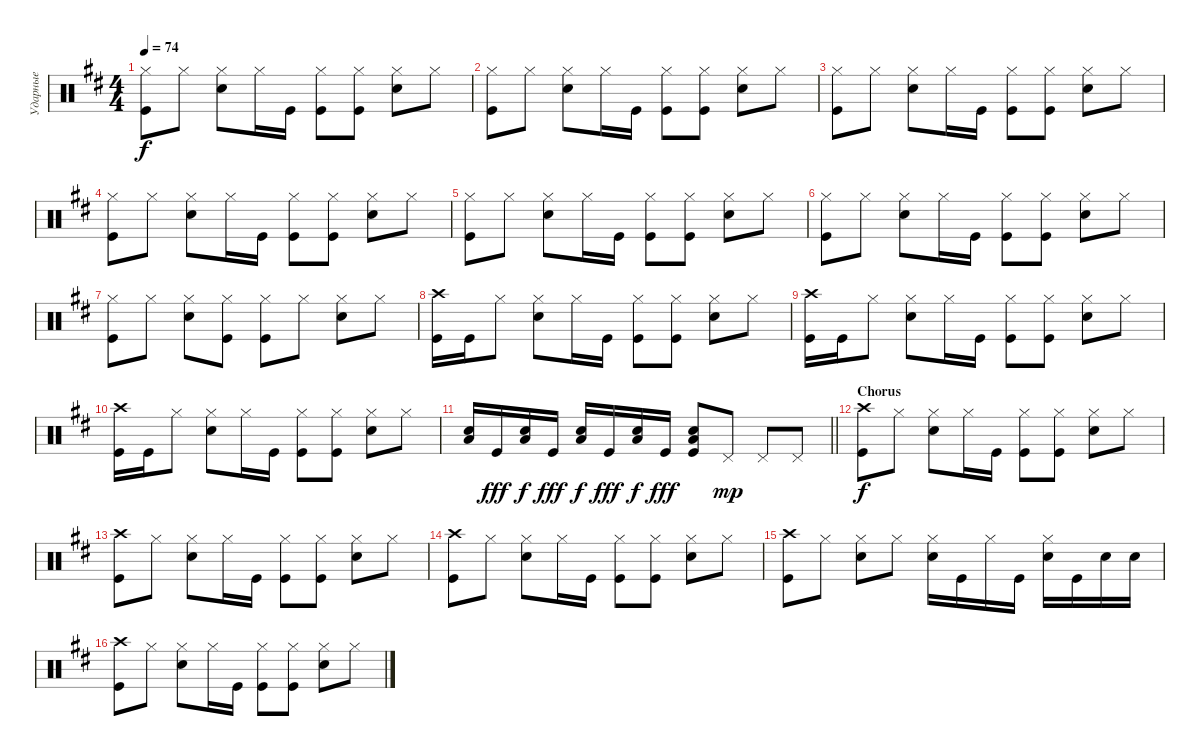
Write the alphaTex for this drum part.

\track ("Ударные" "Ударные") {instrument percussion}
\staff {score}
\articulation defaults
\ts (4 4)
\tempo 74
\clef neutral
\ks bminor
("Kick (hit)" "Hi-Hat (closed)").8{dy f} "Hi-Hat (closed)".8 ("Hi-Hat (closed)" "Snare (hit) 2").8 "Hi-Hat (closed)".16 "Kick (hit)".16 ("Kick (hit)" "Hi-Hat (closed)").8 ("Kick (hit)" "Hi-Hat (closed)").8 ("Snare (hit) 2" "Hi-Hat (closed)").8 "Hi-Hat (closed)".8 |
("Kick (hit)" "Hi-Hat (closed)").8 "Hi-Hat (closed)".8 ("Hi-Hat (closed)" "Snare (hit) 2").8 "Hi-Hat (closed)".16 "Kick (hit)".16 ("Kick (hit)" "Hi-Hat (closed)").8 ("Kick (hit)" "Hi-Hat (closed)").8 ("Snare (hit) 2" "Hi-Hat (closed)").8 "Hi-Hat (closed)".8 |
("Kick (hit)" "Hi-Hat (closed)").8 "Hi-Hat (closed)".8 ("Hi-Hat (closed)" "Snare (hit) 2").8 "Hi-Hat (closed)".16 "Kick (hit)".16 ("Kick (hit)" "Hi-Hat (closed)").8 ("Kick (hit)" "Hi-Hat (closed)").8 ("Snare (hit) 2" "Hi-Hat (closed)").8 "Hi-Hat (closed)".8 |
("Kick (hit)" "Hi-Hat (closed)").8 "Hi-Hat (closed)".8 ("Hi-Hat (closed)" "Snare (hit) 2").8 "Hi-Hat (closed)".16 "Kick (hit)".16 ("Kick (hit)" "Hi-Hat (closed)").8 ("Kick (hit)" "Hi-Hat (closed)").8 ("Snare (hit) 2" "Hi-Hat (closed)").8 "Hi-Hat (closed)".8 |
("Kick (hit)" "Hi-Hat (closed)").8 "Hi-Hat (closed)".8 ("Hi-Hat (closed)" "Snare (hit) 2").8 "Hi-Hat (closed)".16 "Kick (hit)".16 ("Kick (hit)" "Hi-Hat (closed)").8 ("Kick (hit)" "Hi-Hat (closed)").8 ("Snare (hit) 2" "Hi-Hat (closed)").8 "Hi-Hat (closed)".8 |
("Kick (hit)" "Hi-Hat (closed)").8 "Hi-Hat (closed)".8 ("Hi-Hat (closed)" "Snare (hit) 2").8 "Hi-Hat (closed)".16 "Kick (hit)".16 ("Kick (hit)" "Hi-Hat (closed)").8 ("Kick (hit)" "Hi-Hat (closed)").8 ("Snare (hit) 2" "Hi-Hat (closed)").8 "Hi-Hat (closed)".8 |
("Kick (hit)" "Hi-Hat (closed)").8 "Hi-Hat (closed)".8 ("Hi-Hat (closed)" "Snare (hit) 2").8 ("Hi-Hat (closed)" "Kick (hit)").8 ("Kick (hit)" "Hi-Hat (closed)").8 "Hi-Hat (closed)".8 ("Snare (hit) 2" "Hi-Hat (closed)").8 "Hi-Hat (closed)".8 |
("Kick (hit)" "Crash high (hit)").16 "Kick (hit)".16 "Hi-Hat (closed)".8 ("Hi-Hat (closed)" "Snare (hit) 2").8 "Hi-Hat (closed)".16 "Kick (hit)".16 ("Kick (hit)" "Hi-Hat (closed)").8 ("Kick (hit)" "Hi-Hat (closed)").8 ("Snare (hit) 2" "Hi-Hat (closed)").8 "Hi-Hat (closed)".8 |
("Kick (hit)" "Crash high (hit)").16 "Kick (hit)".16 "Hi-Hat (closed)".8 ("Hi-Hat (closed)" "Snare (hit) 2").8 "Hi-Hat (closed)".16 "Kick (hit)".16 ("Kick (hit)" "Hi-Hat (closed)").8 ("Kick (hit)" "Hi-Hat (closed)").8 ("Snare (hit) 2" "Hi-Hat (closed)").8 "Hi-Hat (closed)".8 |
("Kick (hit)" "Crash high (hit)").16 "Kick (hit)".16 "Hi-Hat (closed)".8 ("Hi-Hat (closed)" "Snare (hit) 2").8 "Hi-Hat (closed)".16 "Kick (hit)".16 ("Kick (hit)" "Hi-Hat (closed)").8 ("Kick (hit)" "Hi-Hat (closed)").8 ("Snare (hit) 2" "Hi-Hat (closed)").8 "Hi-Hat (closed)".8 |
\barLineRight lightlight
("Snare (hit) 2" "Low Tom (hit)").16{bd 240} "Kick (hit)".16{dy fff} ("Snare (hit) 2" "Low Tom (hit)").16{bd 240 dy f} "Kick (hit)".16{dy fff} ("Snare (hit) 2" "Low Tom (hit)").16{bd 240 dy f} "Kick (hit)".16{dy fff} ("Snare (hit) 2" "Low Tom (hit)").16{bd 240 dy f} "Kick (hit)".16{dy fff} ("Kick (hit)" "Low Tom (hit)" "Snare (hit) 2").8{bd 240} "Pedal Hi-Hat (hit)".8{dy mp} "Pedal Hi-Hat (hit)".8 "Pedal Hi-Hat (hit)".8 |
\section ("" "Chorus")
("Kick (hit)" "Crash high (hit)").8{dy f} "Hi-Hat (closed)".8 ("Hi-Hat (closed)" "Snare (hit) 2").8 "Hi-Hat (closed)".16 "Kick (hit)".16 ("Kick (hit)" "Hi-Hat (closed)").8 ("Kick (hit)" "Hi-Hat (closed)").8 ("Snare (hit) 2" "Hi-Hat (closed)").8 "Hi-Hat (closed)".8 |
("Kick (hit)" "Crash high (hit)").8 "Hi-Hat (closed)".8 ("Hi-Hat (closed)" "Snare (hit) 2").8 "Hi-Hat (closed)".16 "Kick (hit)".16 ("Kick (hit)" "Hi-Hat (closed)").8 ("Kick (hit)" "Hi-Hat (closed)").8 ("Snare (hit) 2" "Hi-Hat (closed)").8 "Hi-Hat (closed)".8 |
("Kick (hit)" "Crash high (hit)").8 "Hi-Hat (closed)".8 ("Hi-Hat (closed)" "Snare (hit) 2").8 "Hi-Hat (closed)".16 "Kick (hit)".16 ("Kick (hit)" "Hi-Hat (closed)").8 ("Kick (hit)" "Hi-Hat (closed)").8 ("Snare (hit) 2" "Hi-Hat (closed)").8 "Hi-Hat (closed)".8 |
("Kick (hit)" "Crash high (hit)").8 "Hi-Hat (closed)".8 ("Hi-Hat (closed)" "Snare (hit) 2").8 "Hi-Hat (closed)".8 ("Snare (hit) 2" "Hi-Hat (closed)").16 "Kick (hit)".16 "Hi-Hat (closed)".16 "Kick (hit)".16 ("Snare (hit) 2" "Hi-Hat (closed)").16 "Kick (hit)".16 "Snare (hit) 2".16 "Snare (hit) 2".16 |
("Kick (hit)" "Crash high (hit)").8 "Hi-Hat (closed)".8 ("Hi-Hat (closed)" "Snare (hit) 2").8 "Hi-Hat (closed)".16 "Kick (hit)".16 ("Kick (hit)" "Hi-Hat (closed)").8 ("Kick (hit)" "Hi-Hat (closed)").8 ("Snare (hit) 2" "Hi-Hat (closed)").8 "Hi-Hat (closed)".8
